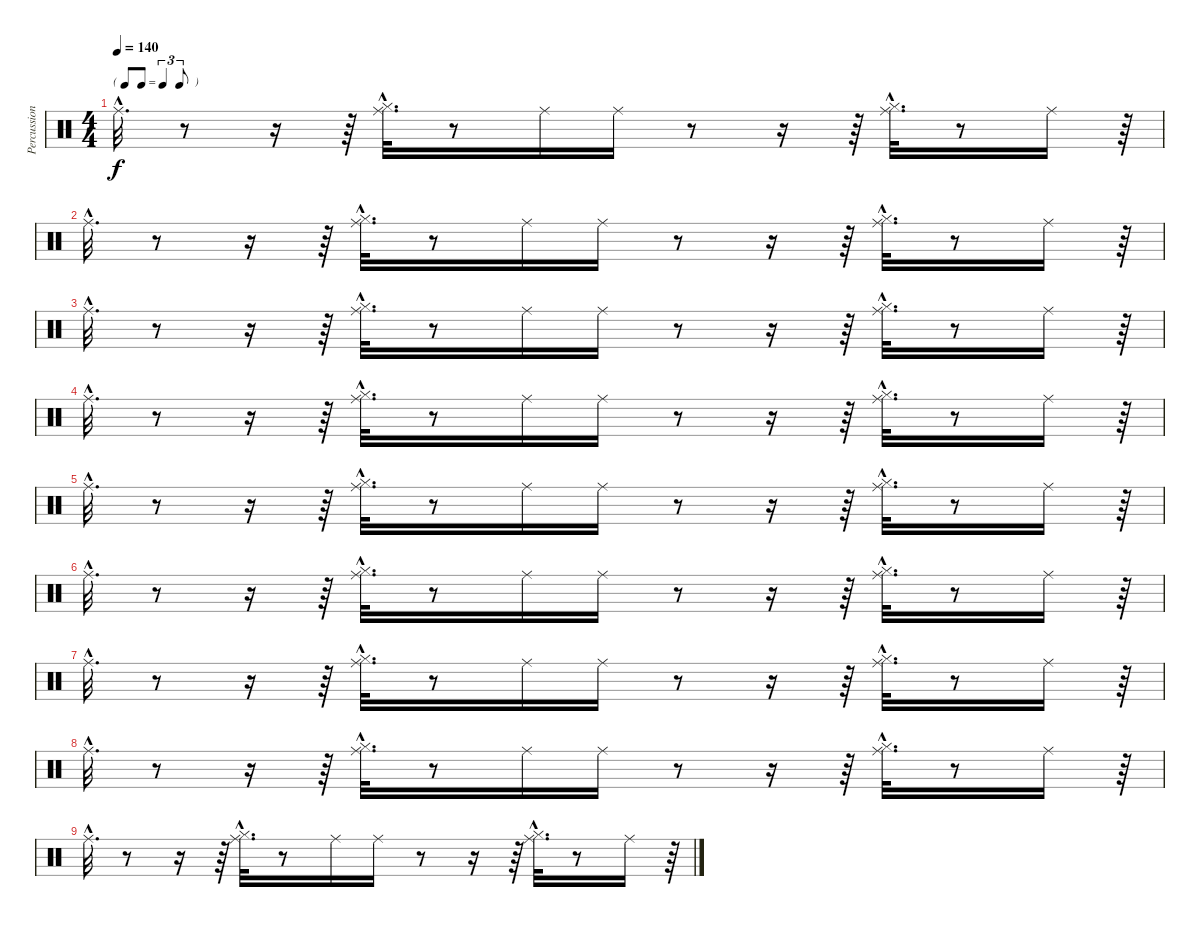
\track ("Percussions" "Percussion") {instrument percussion}
\staff {score}
\articulation defaults
\ts (4 4)
\tf triplet8th
\tempo 140
\clef neutral
\ks c "Ride (middle)"{hac}.32{d dy f}
r.8 r.16 r.64 ("Hi-Hat (closed)"{hac} "Ride (middle)"{hac}).32{d} r.8 "Ride (middle)".16 "Ride (middle)".16 r.8 r.16 r.64 ("Hi-Hat (closed)"{hac} "Ride (middle)"{hac}).32{d} r.8 "Ride (middle)".16 r.64 |
"Ride (middle)"{hac}.32{d} r.8 r.16 r.64 ("Hi-Hat (closed)"{hac} "Ride (middle)"{hac}).32{d} r.8 "Ride (middle)".16 "Ride (middle)".16 r.8 r.16 r.64 ("Hi-Hat (closed)"{hac} "Ride (middle)"{hac}).32{d} r.8 "Ride (middle)".16 r.64 |
"Ride (middle)"{hac}.32{d} r.8 r.16 r.64 ("Hi-Hat (closed)"{hac} "Ride (middle)"{hac}).32{d} r.8 "Ride (middle)".16 "Ride (middle)".16 r.8 r.16 r.64 ("Hi-Hat (closed)"{hac} "Ride (middle)"{hac}).32{d} r.8 "Ride (middle)".16 r.64 |
"Ride (middle)"{hac}.32{d} r.8 r.16 r.64 ("Hi-Hat (closed)"{hac} "Ride (middle)"{hac}).32{d} r.8 "Ride (middle)".16 "Ride (middle)".16 r.8 r.16 r.64 ("Hi-Hat (closed)"{hac} "Ride (middle)"{hac}).32{d} r.8 "Ride (middle)".16 r.64 |
"Ride (middle)"{hac}.32{d} r.8 r.16 r.64 ("Hi-Hat (closed)"{hac} "Ride (middle)"{hac}).32{d} r.8 "Ride (middle)".16 "Ride (middle)".16 r.8 r.16 r.64 ("Hi-Hat (closed)"{hac} "Ride (middle)"{hac}).32{d} r.8 "Ride (middle)".16 r.64 |
"Ride (middle)"{hac}.32{d} r.8 r.16 r.64 ("Hi-Hat (closed)"{hac} "Ride (middle)"{hac}).32{d} r.8 "Ride (middle)".16 "Ride (middle)".16 r.8 r.16 r.64 ("Hi-Hat (closed)"{hac} "Ride (middle)"{hac}).32{d} r.8 "Ride (middle)".16 r.64 |
"Ride (middle)"{hac}.32{d} r.8 r.16 r.64 ("Hi-Hat (closed)"{hac} "Ride (middle)"{hac}).32{d} r.8 "Ride (middle)".16 "Ride (middle)".16 r.8 r.16 r.64 ("Hi-Hat (closed)"{hac} "Ride (middle)"{hac}).32{d} r.8 "Ride (middle)".16 r.64 |
"Ride (middle)"{hac}.32{d} r.8 r.16 r.64 ("Hi-Hat (closed)"{hac} "Ride (middle)"{hac}).32{d} r.8 "Ride (middle)".16 "Ride (middle)".16 r.8 r.16 r.64 ("Hi-Hat (closed)"{hac} "Ride (middle)"{hac}).32{d} r.8 "Ride (middle)".16 r.64 |
"Ride (middle)"{hac}.32{d} r.8 r.16 r.64 ("Hi-Hat (closed)"{hac} "Ride (middle)"{hac}).32{d} r.8 "Ride (middle)".16 "Ride (middle)".16 r.8 r.16 r.64 ("Hi-Hat (closed)"{hac} "Ride (middle)"{hac}).32{d} r.8 "Ride (middle)".16 r.64
